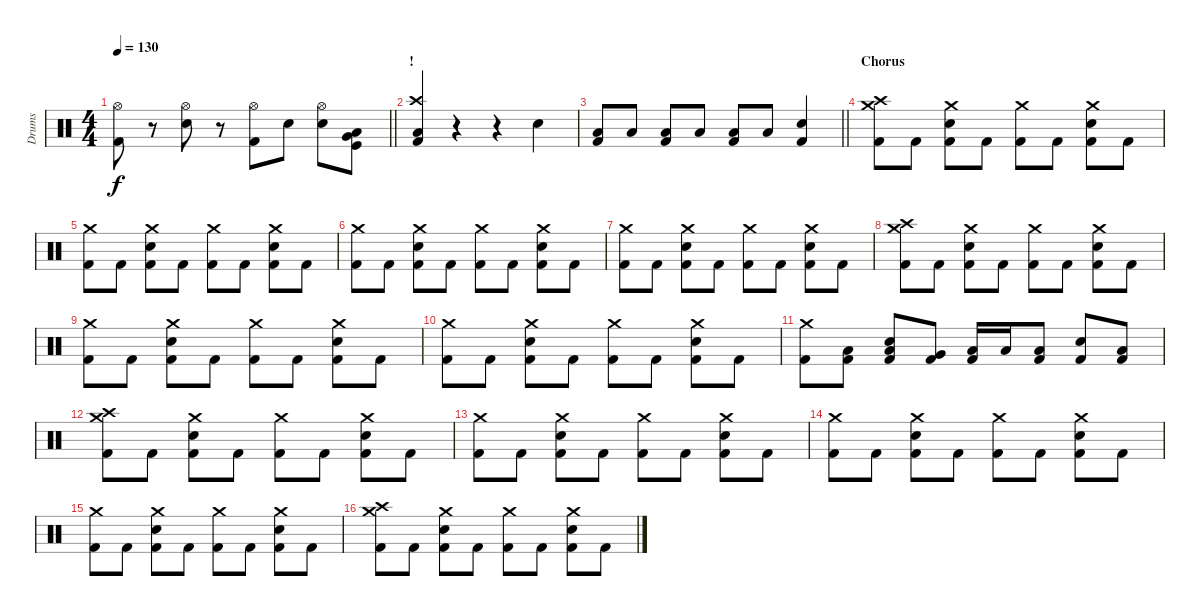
\track ("Drums" "Drums") {instrument percussion}
\staff {score}
\articulation defaults
\ts (4 4)
\tempo 130
\clef neutral
\barLineRight lightlight
\ks c
("Hi-Hat (open)" "Kick (hit) 2").8{dy f} r.8 ("Hi-Hat (open)" "Snare (hit) 2").8 r.8 ("Hi-Hat (open)" "Kick (hit) 2").8 "Snare (hit) 2".8 ("Hi-Hat (open)" "Snare (hit) 2").8 ("Low Tom (hit)" "Very Low Tom (hit)" "Kick (hit)").8 |
\section ("" "!")
("Crash high (hit)" "Low Floor Tom (hit)" "Kick (hit) 2").4 r.4 r.4 "Snare (hit)".4 |
\barLineRight lightlight
("Low Floor Tom (hit)" "Kick (hit) 2").8 "Low Floor Tom (hit)".8 ("Low Floor Tom (hit)" "Kick (hit) 2").8 "Low Floor Tom (hit)".8 ("Low Floor Tom (hit)" "Kick (hit) 2").8 "Low Floor Tom (hit)".8 ("Snare (hit) 2" "Kick (hit) 2").4 |
\section ("" "Chorus")
("Crash medium (hit)" "Crash high (hit)" "Kick (hit) 2").8 "Kick (hit) 2".8 ("Crash medium (hit)" "Snare (hit) 2" "Kick (hit) 2").8 "Kick (hit) 2".8 ("Crash medium (hit)" "Kick (hit) 2").8 "Kick (hit) 2".8 ("Crash medium (hit)" "Snare (hit) 2" "Kick (hit) 2").8 "Kick (hit) 2".8 |
("Crash medium (hit)" "Kick (hit) 2").8 "Kick (hit) 2".8 ("Crash medium (hit)" "Snare (hit) 2" "Kick (hit) 2").8 "Kick (hit) 2".8 ("Crash medium (hit)" "Kick (hit) 2").8 "Kick (hit) 2".8 ("Crash medium (hit)" "Snare (hit) 2" "Kick (hit) 2").8 "Kick (hit) 2".8 |
("Crash medium (hit)" "Kick (hit) 2").8 "Kick (hit) 2".8 ("Crash medium (hit)" "Snare (hit) 2" "Kick (hit) 2").8 "Kick (hit) 2".8 ("Crash medium (hit)" "Kick (hit) 2").8 "Kick (hit) 2".8 ("Crash medium (hit)" "Snare (hit) 2" "Kick (hit) 2").8 "Kick (hit) 2".8 |
("Crash medium (hit)" "Kick (hit) 2").8 "Kick (hit) 2".8 ("Crash medium (hit)" "Snare (hit) 2" "Kick (hit) 2").8 "Kick (hit) 2".8 ("Crash medium (hit)" "Kick (hit) 2").8 "Kick (hit) 2".8 ("Crash medium (hit)" "Snare (hit) 2" "Kick (hit) 2").8 "Kick (hit) 2".8 |
("Crash medium (hit)" "Crash high (hit)" "Kick (hit) 2").8 "Kick (hit) 2".8 ("Crash medium (hit)" "Snare (hit) 2" "Kick (hit) 2").8 "Kick (hit) 2".8 ("Crash medium (hit)" "Kick (hit) 2").8 "Kick (hit) 2".8 ("Crash medium (hit)" "Snare (hit) 2" "Kick (hit) 2").8 "Kick (hit) 2".8 |
("Crash medium (hit)" "Kick (hit) 2").8 "Kick (hit) 2".8 ("Crash medium (hit)" "Snare (hit) 2" "Kick (hit) 2").8 "Kick (hit) 2".8 ("Crash medium (hit)" "Kick (hit) 2").8 "Kick (hit) 2".8 ("Crash medium (hit)" "Snare (hit) 2" "Kick (hit) 2").8 "Kick (hit) 2".8 |
("Crash medium (hit)" "Kick (hit) 2").8 "Kick (hit) 2".8 ("Crash medium (hit)" "Snare (hit) 2" "Kick (hit) 2").8 "Kick (hit) 2".8 ("Crash medium (hit)" "Kick (hit) 2").8 "Kick (hit) 2".8 ("Crash medium (hit)" "Snare (hit) 2" "Kick (hit) 2").8 "Kick (hit) 2".8 |
("Crash medium (hit)" "Kick (hit) 2").8 ("Low Floor Tom (hit)" "Kick (hit) 2").8 ("Low Floor Tom (hit)" "Snare (hit) 2" "Kick (hit) 2").8 ("Very Low Tom (hit)" "Kick (hit) 2").8 ("Low Floor Tom (hit)" "Kick (hit) 2").16 "Low Floor Tom (hit)".16 ("Low Floor Tom (hit)" "Kick (hit) 2").8 ("Snare (hit) 2" "Kick (hit) 2").8 ("Low Tom (hit)" "Kick (hit) 2").8 |
("Crash medium (hit)" "Crash high (hit)" "Kick (hit) 2").8 "Kick (hit) 2".8 ("Crash medium (hit)" "Snare (hit) 2" "Kick (hit) 2").8 "Kick (hit) 2".8 ("Crash medium (hit)" "Kick (hit) 2").8 "Kick (hit) 2".8 ("Crash medium (hit)" "Snare (hit) 2" "Kick (hit) 2").8 "Kick (hit) 2".8 |
("Crash medium (hit)" "Kick (hit) 2").8 "Kick (hit) 2".8 ("Crash medium (hit)" "Snare (hit) 2" "Kick (hit) 2").8 "Kick (hit) 2".8 ("Crash medium (hit)" "Kick (hit) 2").8 "Kick (hit) 2".8 ("Crash medium (hit)" "Snare (hit) 2" "Kick (hit) 2").8 "Kick (hit) 2".8 |
("Crash medium (hit)" "Kick (hit) 2").8 "Kick (hit) 2".8 ("Crash medium (hit)" "Snare (hit) 2" "Kick (hit) 2").8 "Kick (hit) 2".8 ("Crash medium (hit)" "Kick (hit) 2").8 "Kick (hit) 2".8 ("Crash medium (hit)" "Snare (hit) 2" "Kick (hit) 2").8 "Kick (hit) 2".8 |
("Crash medium (hit)" "Kick (hit) 2").8 "Kick (hit) 2".8 ("Crash medium (hit)" "Snare (hit) 2" "Kick (hit) 2").8 "Kick (hit) 2".8 ("Crash medium (hit)" "Kick (hit) 2").8 "Kick (hit) 2".8 ("Crash medium (hit)" "Snare (hit) 2" "Kick (hit) 2").8 "Kick (hit) 2".8 |
("Crash medium (hit)" "Crash high (hit)" "Kick (hit) 2").8 "Kick (hit) 2".8 ("Crash medium (hit)" "Snare (hit) 2" "Kick (hit) 2").8 "Kick (hit) 2".8 ("Crash medium (hit)" "Kick (hit) 2").8 "Kick (hit) 2".8 ("Crash medium (hit)" "Snare (hit) 2" "Kick (hit) 2").8 "Kick (hit) 2".8
